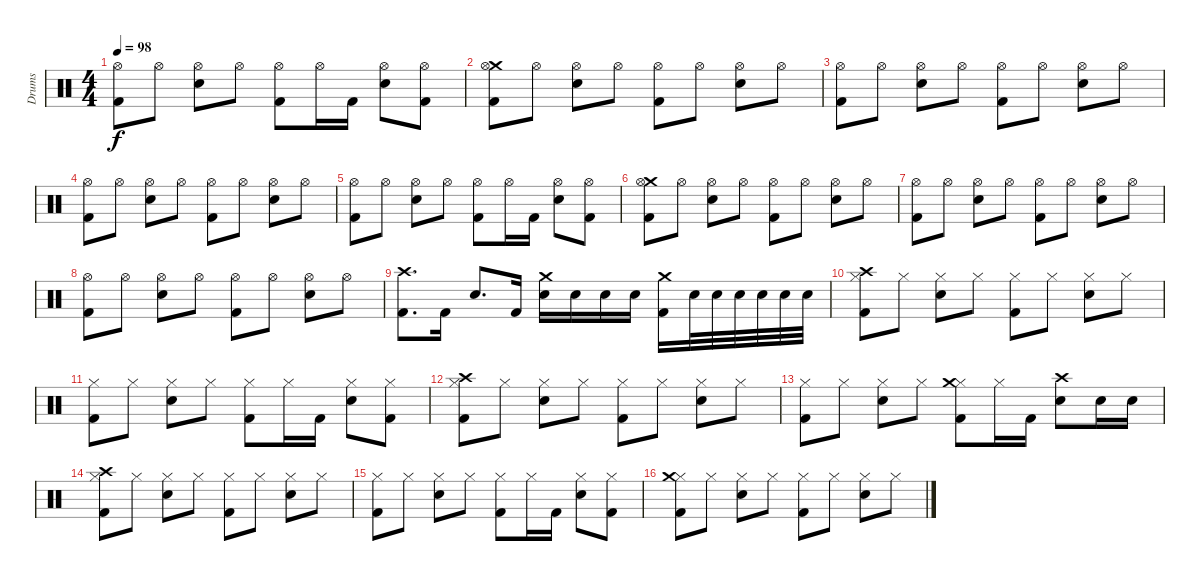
\track ("Drums" "Drums") {instrument percussion}
\staff {score}
\articulation defaults
\ts (4 4)
\tempo 98
\clef neutral
\ks c
("Hi-Hat (open)" "Kick (hit) 2").8{dy f} "Hi-Hat (open)".8 ("Hi-Hat (open)" "Snare (hit) 2").8 "Hi-Hat (open)".8 ("Hi-Hat (open)" "Kick (hit) 2").8 "Hi-Hat (open)".16 "Kick (hit) 2".16 ("Hi-Hat (open)" "Snare (hit) 2").8 ("Hi-Hat (open)" "Kick (hit) 2").8 |
("Crash medium (hit)" "Hi-Hat (open)" "Kick (hit) 2").8 "Hi-Hat (open)".8 ("Hi-Hat (open)" "Snare (hit) 2").8 "Hi-Hat (open)".8 ("Hi-Hat (open)" "Kick (hit) 2").8 "Hi-Hat (open)".8 ("Hi-Hat (open)" "Snare (hit) 2").8 "Hi-Hat (open)".8 |
("Hi-Hat (open)" "Kick (hit) 2").8 "Hi-Hat (open)".8 ("Hi-Hat (open)" "Snare (hit) 2").8 "Hi-Hat (open)".8 ("Hi-Hat (open)" "Kick (hit) 2").8 "Hi-Hat (open)".8 ("Hi-Hat (open)" "Snare (hit) 2").8 "Hi-Hat (open)".8 |
("Hi-Hat (open)" "Kick (hit) 2").8 "Hi-Hat (open)".8 ("Hi-Hat (open)" "Snare (hit) 2").8 "Hi-Hat (open)".8 ("Hi-Hat (open)" "Kick (hit) 2").8 "Hi-Hat (open)".8 ("Hi-Hat (open)" "Snare (hit) 2").8 "Hi-Hat (open)".8 |
("Hi-Hat (open)" "Kick (hit) 2").8 "Hi-Hat (open)".8 ("Hi-Hat (open)" "Snare (hit) 2").8 "Hi-Hat (open)".8 ("Hi-Hat (open)" "Kick (hit) 2").8 "Hi-Hat (open)".16 "Kick (hit) 2".16 ("Hi-Hat (open)" "Snare (hit) 2").8 ("Hi-Hat (open)" "Kick (hit) 2").8 |
("Crash medium (hit)" "Hi-Hat (open)" "Kick (hit) 2").8 "Hi-Hat (open)".8 ("Hi-Hat (open)" "Snare (hit) 2").8 "Hi-Hat (open)".8 ("Hi-Hat (open)" "Kick (hit) 2").8 "Hi-Hat (open)".8 ("Hi-Hat (open)" "Snare (hit) 2").8 "Hi-Hat (open)".8 |
("Hi-Hat (open)" "Kick (hit) 2").8 "Hi-Hat (open)".8 ("Hi-Hat (open)" "Snare (hit) 2").8 "Hi-Hat (open)".8 ("Hi-Hat (open)" "Kick (hit) 2").8 "Hi-Hat (open)".8 ("Hi-Hat (open)" "Snare (hit) 2").8 "Hi-Hat (open)".8 |
("Hi-Hat (open)" "Kick (hit) 2").8 "Hi-Hat (open)".8 ("Hi-Hat (open)" "Snare (hit) 2").8 "Hi-Hat (open)".8 ("Hi-Hat (open)" "Kick (hit) 2").8 "Hi-Hat (open)".8 ("Hi-Hat (open)" "Snare (hit) 2").8 "Hi-Hat (open)".8 |
("Crash high (hit)" "Kick (hit) 2").8{d} "Kick (hit) 2".16 "Snare (hit) 2".8{d} "Kick (hit) 2".16 ("Crash medium (hit)" "Snare (hit) 2").16 "Snare (hit) 2".16 "Snare (hit) 2".16 "Snare (hit) 2".16 ("Crash medium (hit)" "Kick (hit) 2").16 "Snare (hit) 2".32 "Snare (hit) 2".32 "Snare (hit) 2".32 "Snare (hit) 2".32 "Snare (hit) 2".32 "Snare (hit) 2".32 |
("Hi-Hat (closed)" "Kick (hit) 2" "Crash high (hit)").8 "Hi-Hat (closed)".8 ("Hi-Hat (closed)" "Snare (hit) 2").8 "Hi-Hat (closed)".8 ("Hi-Hat (closed)" "Kick (hit) 2").8 "Hi-Hat (closed)".8 ("Hi-Hat (closed)" "Snare (hit) 2").8 "Hi-Hat (closed)".8 |
("Hi-Hat (closed)" "Kick (hit) 2").8 "Hi-Hat (closed)".8 ("Hi-Hat (closed)" "Snare (hit) 2").8 "Hi-Hat (closed)".8 ("Hi-Hat (closed)" "Kick (hit) 2").8 "Hi-Hat (closed)".16 "Kick (hit) 2".16 ("Hi-Hat (closed)" "Snare (hit) 2").8 ("Hi-Hat (closed)" "Kick (hit) 2").8 |
("Hi-Hat (closed)" "Kick (hit) 2" "Crash high (hit)").8 "Hi-Hat (closed)".8 ("Hi-Hat (closed)" "Snare (hit) 2").8 "Hi-Hat (closed)".8 ("Hi-Hat (closed)" "Kick (hit) 2").8 "Hi-Hat (closed)".8 ("Hi-Hat (closed)" "Snare (hit) 2").8 "Hi-Hat (closed)".8 |
("Hi-Hat (closed)" "Kick (hit) 2").8 "Hi-Hat (closed)".8 ("Hi-Hat (closed)" "Snare (hit) 2").8 "Hi-Hat (closed)".8 ("Hi-Hat (closed)" "Kick (hit) 2" "Crash medium (hit)").8 "Hi-Hat (closed)".16 "Kick (hit) 2".16 ("Snare (hit) 2" "Crash high (hit)").8 "Snare (hit) 2".16 "Snare (hit) 2".16 |
("Hi-Hat (closed)" "Kick (hit) 2" "Crash high (hit)").8 "Hi-Hat (closed)".8 ("Hi-Hat (closed)" "Snare (hit) 2").8 "Hi-Hat (closed)".8 ("Hi-Hat (closed)" "Kick (hit) 2").8 "Hi-Hat (closed)".8 ("Hi-Hat (closed)" "Snare (hit) 2").8 "Hi-Hat (closed)".8 |
("Hi-Hat (closed)" "Kick (hit) 2").8 "Hi-Hat (closed)".8 ("Hi-Hat (closed)" "Snare (hit) 2").8 "Hi-Hat (closed)".8 ("Hi-Hat (closed)" "Kick (hit) 2").8 "Hi-Hat (closed)".16 "Kick (hit) 2".16 ("Hi-Hat (closed)" "Snare (hit) 2").8 ("Hi-Hat (closed)" "Kick (hit) 2").8 |
("Hi-Hat (closed)" "Kick (hit) 2" "Crash medium (hit)").8 "Hi-Hat (closed)".8 ("Hi-Hat (closed)" "Snare (hit) 2").8 "Hi-Hat (closed)".8 ("Hi-Hat (closed)" "Kick (hit) 2").8 "Hi-Hat (closed)".8 ("Hi-Hat (closed)" "Snare (hit) 2").8 "Hi-Hat (closed)".8
